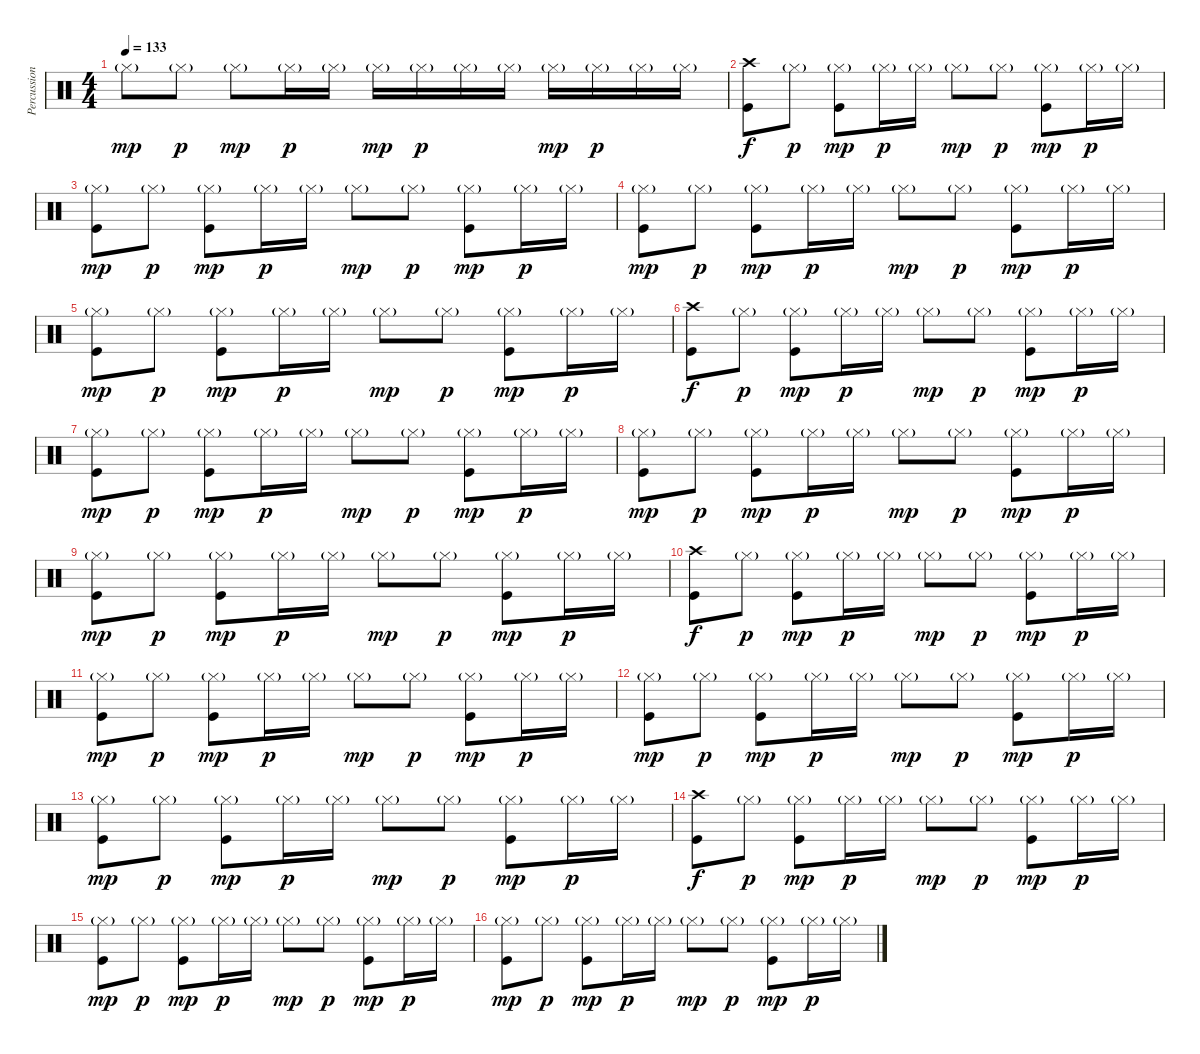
\track ("Percussion" "Percussion") {instrument percussion}
\staff {score}
\articulation defaults
\ts (4 4)
\tempo 133
\clef neutral
\ks c "Hi-Hat (closed)"{g}.8{dy mp} "Hi-Hat (closed)"{g}.8{dy p} "Hi-Hat (closed)"{g}.8{dy mp} "Hi-Hat (closed)"{g}.16{dy p} "Hi-Hat (closed)"{g}.16 "Hi-Hat (closed)"{g}.16{dy mp} "Hi-Hat (closed)"{g}.16{dy p} "Hi-Hat (closed)"{g}.16 "Hi-Hat (closed)"{g}.16 "Hi-Hat (closed)"{g}.16{dy mp} "Hi-Hat (closed)"{g}.16{dy p} "Hi-Hat (closed)"{g}.16 "Hi-Hat (closed)"{g}.16
|
("Crash high (hit)" "Kick (hit)").8{dy f} "Hi-Hat (closed)"{g}.8{dy p} ("Hi-Hat (closed)"{g} "Kick (hit)").8{dy mp} "Hi-Hat (closed)"{g}.16{dy p} "Hi-Hat (closed)"{g}.16 "Hi-Hat (closed)"{g}.8{dy mp} "Hi-Hat (closed)"{g}.8{dy p} ("Hi-Hat (closed)"{g} "Kick (hit)").8{dy mp} "Hi-Hat (closed)"{g}.16{dy p} "Hi-Hat (closed)"{g}.16 |
("Hi-Hat (closed)"{g} "Kick (hit)").8{dy mp} "Hi-Hat (closed)"{g}.8{dy p} ("Hi-Hat (closed)"{g} "Kick (hit)").8{dy mp} "Hi-Hat (closed)"{g}.16{dy p} "Hi-Hat (closed)"{g}.16 "Hi-Hat (closed)"{g}.8{dy mp} "Hi-Hat (closed)"{g}.8{dy p} ("Hi-Hat (closed)"{g} "Kick (hit)").8{dy mp} "Hi-Hat (closed)"{g}.16{dy p} "Hi-Hat (closed)"{g}.16 |
("Hi-Hat (closed)"{g} "Kick (hit)").8{dy mp} "Hi-Hat (closed)"{g}.8{dy p} ("Hi-Hat (closed)"{g} "Kick (hit)").8{dy mp} "Hi-Hat (closed)"{g}.16{dy p} "Hi-Hat (closed)"{g}.16 "Hi-Hat (closed)"{g}.8{dy mp} "Hi-Hat (closed)"{g}.8{dy p} ("Hi-Hat (closed)"{g} "Kick (hit)").8{dy mp} "Hi-Hat (closed)"{g}.16{dy p} "Hi-Hat (closed)"{g}.16 |
("Hi-Hat (closed)"{g} "Kick (hit)").8{dy mp} "Hi-Hat (closed)"{g}.8{dy p} ("Hi-Hat (closed)"{g} "Kick (hit)").8{dy mp} "Hi-Hat (closed)"{g}.16{dy p} "Hi-Hat (closed)"{g}.16 "Hi-Hat (closed)"{g}.8{dy mp} "Hi-Hat (closed)"{g}.8{dy p} ("Hi-Hat (closed)"{g} "Kick (hit)").8{dy mp} "Hi-Hat (closed)"{g}.16{dy p} "Hi-Hat (closed)"{g}.16 |
("Crash high (hit)" "Kick (hit)").8{dy f} "Hi-Hat (closed)"{g}.8{dy p} ("Hi-Hat (closed)"{g} "Kick (hit)").8{dy mp} "Hi-Hat (closed)"{g}.16{dy p} "Hi-Hat (closed)"{g}.16 "Hi-Hat (closed)"{g}.8{dy mp} "Hi-Hat (closed)"{g}.8{dy p} ("Hi-Hat (closed)"{g} "Kick (hit)").8{dy mp} "Hi-Hat (closed)"{g}.16{dy p} "Hi-Hat (closed)"{g}.16 |
("Hi-Hat (closed)"{g} "Kick (hit)").8{dy mp} "Hi-Hat (closed)"{g}.8{dy p} ("Hi-Hat (closed)"{g} "Kick (hit)").8{dy mp} "Hi-Hat (closed)"{g}.16{dy p} "Hi-Hat (closed)"{g}.16 "Hi-Hat (closed)"{g}.8{dy mp} "Hi-Hat (closed)"{g}.8{dy p} ("Hi-Hat (closed)"{g} "Kick (hit)").8{dy mp} "Hi-Hat (closed)"{g}.16{dy p} "Hi-Hat (closed)"{g}.16 |
("Hi-Hat (closed)"{g} "Kick (hit)").8{dy mp} "Hi-Hat (closed)"{g}.8{dy p} ("Hi-Hat (closed)"{g} "Kick (hit)").8{dy mp} "Hi-Hat (closed)"{g}.16{dy p} "Hi-Hat (closed)"{g}.16 "Hi-Hat (closed)"{g}.8{dy mp} "Hi-Hat (closed)"{g}.8{dy p} ("Hi-Hat (closed)"{g} "Kick (hit)").8{dy mp} "Hi-Hat (closed)"{g}.16{dy p} "Hi-Hat (closed)"{g}.16 |
("Hi-Hat (closed)"{g} "Kick (hit)").8{dy mp} "Hi-Hat (closed)"{g}.8{dy p} ("Hi-Hat (closed)"{g} "Kick (hit)").8{dy mp} "Hi-Hat (closed)"{g}.16{dy p} "Hi-Hat (closed)"{g}.16 "Hi-Hat (closed)"{g}.8{dy mp} "Hi-Hat (closed)"{g}.8{dy p} ("Hi-Hat (closed)"{g} "Kick (hit)").8{dy mp} "Hi-Hat (closed)"{g}.16{dy p} "Hi-Hat (closed)"{g}.16 |
("Crash high (hit)" "Kick (hit)").8{dy f} "Hi-Hat (closed)"{g}.8{dy p} ("Hi-Hat (closed)"{g} "Kick (hit)").8{dy mp} "Hi-Hat (closed)"{g}.16{dy p} "Hi-Hat (closed)"{g}.16 "Hi-Hat (closed)"{g}.8{dy mp} "Hi-Hat (closed)"{g}.8{dy p} ("Hi-Hat (closed)"{g} "Kick (hit)").8{dy mp} "Hi-Hat (closed)"{g}.16{dy p} "Hi-Hat (closed)"{g}.16 |
("Hi-Hat (closed)"{g} "Kick (hit)").8{dy mp} "Hi-Hat (closed)"{g}.8{dy p} ("Hi-Hat (closed)"{g} "Kick (hit)").8{dy mp} "Hi-Hat (closed)"{g}.16{dy p} "Hi-Hat (closed)"{g}.16 "Hi-Hat (closed)"{g}.8{dy mp} "Hi-Hat (closed)"{g}.8{dy p} ("Hi-Hat (closed)"{g} "Kick (hit)").8{dy mp} "Hi-Hat (closed)"{g}.16{dy p} "Hi-Hat (closed)"{g}.16 |
("Hi-Hat (closed)"{g} "Kick (hit)").8{dy mp} "Hi-Hat (closed)"{g}.8{dy p} ("Hi-Hat (closed)"{g} "Kick (hit)").8{dy mp} "Hi-Hat (closed)"{g}.16{dy p} "Hi-Hat (closed)"{g}.16 "Hi-Hat (closed)"{g}.8{dy mp} "Hi-Hat (closed)"{g}.8{dy p} ("Hi-Hat (closed)"{g} "Kick (hit)").8{dy mp} "Hi-Hat (closed)"{g}.16{dy p} "Hi-Hat (closed)"{g}.16 |
("Hi-Hat (closed)"{g} "Kick (hit)").8{dy mp} "Hi-Hat (closed)"{g}.8{dy p} ("Hi-Hat (closed)"{g} "Kick (hit)").8{dy mp} "Hi-Hat (closed)"{g}.16{dy p} "Hi-Hat (closed)"{g}.16 "Hi-Hat (closed)"{g}.8{dy mp} "Hi-Hat (closed)"{g}.8{dy p} ("Hi-Hat (closed)"{g} "Kick (hit)").8{dy mp} "Hi-Hat (closed)"{g}.16{dy p} "Hi-Hat (closed)"{g}.16 |
("Crash high (hit)" "Kick (hit)").8{dy f} "Hi-Hat (closed)"{g}.8{dy p} ("Hi-Hat (closed)"{g} "Kick (hit)").8{dy mp} "Hi-Hat (closed)"{g}.16{dy p} "Hi-Hat (closed)"{g}.16 "Hi-Hat (closed)"{g}.8{dy mp} "Hi-Hat (closed)"{g}.8{dy p} ("Hi-Hat (closed)"{g} "Kick (hit)").8{dy mp} "Hi-Hat (closed)"{g}.16{dy p} "Hi-Hat (closed)"{g}.16 |
("Hi-Hat (closed)"{g} "Kick (hit)").8{dy mp} "Hi-Hat (closed)"{g}.8{dy p} ("Hi-Hat (closed)"{g} "Kick (hit)").8{dy mp} "Hi-Hat (closed)"{g}.16{dy p} "Hi-Hat (closed)"{g}.16 "Hi-Hat (closed)"{g}.8{dy mp} "Hi-Hat (closed)"{g}.8{dy p} ("Hi-Hat (closed)"{g} "Kick (hit)").8{dy mp} "Hi-Hat (closed)"{g}.16{dy p} "Hi-Hat (closed)"{g}.16 |
("Hi-Hat (closed)"{g} "Kick (hit)").8{dy mp} "Hi-Hat (closed)"{g}.8{dy p} ("Hi-Hat (closed)"{g} "Kick (hit)").8{dy mp} "Hi-Hat (closed)"{g}.16{dy p} "Hi-Hat (closed)"{g}.16 "Hi-Hat (closed)"{g}.8{dy mp} "Hi-Hat (closed)"{g}.8{dy p} ("Hi-Hat (closed)"{g} "Kick (hit)").8{dy mp} "Hi-Hat (closed)"{g}.16{dy p} "Hi-Hat (closed)"{g}.16
